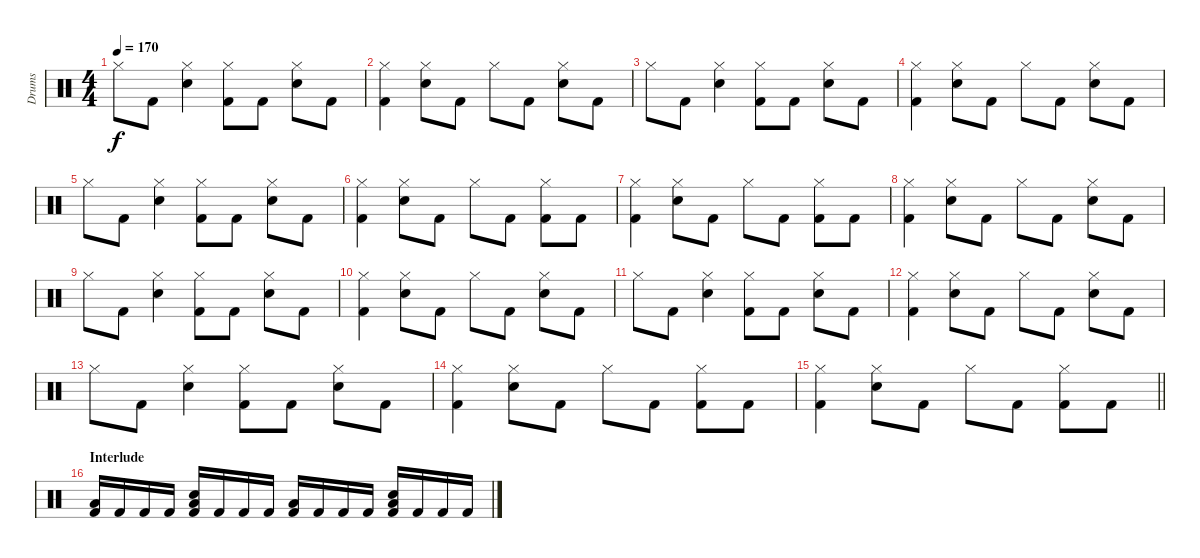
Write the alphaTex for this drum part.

\track ("Drums" "Drums") {instrument percussion}
\staff {score}
\articulation defaults
\ts (4 4)
\tempo 170
\clef neutral
\ks c "Hi-Hat (closed)".8{dy f} "Kick (hit) 2".8
("Hi-Hat (closed)" "Snare (hit) 2").4 ("Hi-Hat (closed)" "Kick (hit) 2").8 "Kick (hit) 2".8 ("Hi-Hat (closed)" "Snare (hit) 2").8 "Kick (hit) 2".8 |
("Hi-Hat (closed)" "Kick (hit) 2").4 ("Hi-Hat (closed)" "Snare (hit) 2").8 "Kick (hit) 2".8 "Hi-Hat (closed)".8 "Kick (hit) 2".8 ("Hi-Hat (closed)" "Snare (hit) 2").8 "Kick (hit) 2".8 |
"Hi-Hat (closed)".8 "Kick (hit) 2".8 ("Hi-Hat (closed)" "Snare (hit) 2").4 ("Hi-Hat (closed)" "Kick (hit) 2").8 "Kick (hit) 2".8 ("Hi-Hat (closed)" "Snare (hit) 2").8 "Kick (hit) 2".8 |
("Hi-Hat (closed)" "Kick (hit) 2").4 ("Hi-Hat (closed)" "Snare (hit) 2").8 "Kick (hit) 2".8 "Hi-Hat (closed)".8 "Kick (hit) 2".8 ("Hi-Hat (closed)" "Snare (hit) 2").8 "Kick (hit) 2".8 |
"Hi-Hat (closed)".8 "Kick (hit) 2".8 ("Hi-Hat (closed)" "Snare (hit) 2").4 ("Hi-Hat (closed)" "Kick (hit) 2").8 "Kick (hit) 2".8 ("Hi-Hat (closed)" "Snare (hit) 2").8 "Kick (hit) 2".8 |
("Hi-Hat (closed)" "Kick (hit) 2").4 ("Hi-Hat (closed)" "Snare (hit) 2").8 "Kick (hit) 2".8 "Hi-Hat (closed)".8 "Kick (hit) 2".8 ("Hi-Hat (closed)" "Kick (hit) 2").8 "Kick (hit) 2".8 |
("Hi-Hat (closed)" "Kick (hit) 2").4 ("Hi-Hat (closed)" "Snare (hit) 2").8 "Kick (hit) 2".8 "Hi-Hat (closed)".8 "Kick (hit) 2".8 ("Hi-Hat (closed)" "Kick (hit) 2").8 "Kick (hit) 2".8 |
("Hi-Hat (closed)" "Kick (hit) 2").4 ("Hi-Hat (closed)" "Snare (hit) 2").8 "Kick (hit) 2".8 "Hi-Hat (closed)".8 "Kick (hit) 2".8 ("Hi-Hat (closed)" "Snare (hit) 2").8 "Kick (hit) 2".8 |
"Hi-Hat (closed)".8 "Kick (hit) 2".8 ("Hi-Hat (closed)" "Snare (hit) 2").4 ("Hi-Hat (closed)" "Kick (hit) 2").8 "Kick (hit) 2".8 ("Hi-Hat (closed)" "Snare (hit) 2").8 "Kick (hit) 2".8 |
("Hi-Hat (closed)" "Kick (hit) 2").4 ("Hi-Hat (closed)" "Snare (hit) 2").8 "Kick (hit) 2".8 "Hi-Hat (closed)".8 "Kick (hit) 2".8 ("Hi-Hat (closed)" "Snare (hit) 2").8 "Kick (hit) 2".8 |
"Hi-Hat (closed)".8 "Kick (hit) 2".8 ("Hi-Hat (closed)" "Snare (hit) 2").4 ("Hi-Hat (closed)" "Kick (hit) 2").8 "Kick (hit) 2".8 ("Hi-Hat (closed)" "Snare (hit) 2").8 "Kick (hit) 2".8 |
("Hi-Hat (closed)" "Kick (hit) 2").4 ("Hi-Hat (closed)" "Snare (hit) 2").8 "Kick (hit) 2".8 "Hi-Hat (closed)".8 "Kick (hit) 2".8 ("Hi-Hat (closed)" "Snare (hit) 2").8 "Kick (hit) 2".8 |
"Hi-Hat (closed)".8 "Kick (hit) 2".8 ("Hi-Hat (closed)" "Snare (hit) 2").4 ("Hi-Hat (closed)" "Kick (hit) 2").8 "Kick (hit) 2".8 ("Hi-Hat (closed)" "Snare (hit) 2").8 "Kick (hit) 2".8 |
("Hi-Hat (closed)" "Kick (hit) 2").4 ("Hi-Hat (closed)" "Snare (hit) 2").8 "Kick (hit) 2".8 "Hi-Hat (closed)".8 "Kick (hit) 2".8 ("Hi-Hat (closed)" "Kick (hit) 2").8 "Kick (hit) 2".8 |
\barLineRight lightlight
("Hi-Hat (closed)" "Kick (hit) 2").4 ("Hi-Hat (closed)" "Snare (hit) 2").8 "Kick (hit) 2".8 "Hi-Hat (closed)".8 "Kick (hit) 2".8 ("Hi-Hat (closed)" "Kick (hit) 2").8 "Kick (hit) 2".8 |
\section ("" "Interlude")
("Low Tom (hit)" "Kick (hit) 2").16 "Kick (hit) 2".16 "Kick (hit) 2".16 "Kick (hit) 2".16 ("Low Tom (hit)" "Snare (hit) 2" "Kick (hit) 2").16 "Kick (hit) 2".16 "Kick (hit) 2".16 "Kick (hit) 2".16 ("Low Tom (hit)" "Kick (hit) 2").16 "Kick (hit) 2".16 "Kick (hit) 2".16 "Kick (hit) 2".16 ("Low Tom (hit)" "Snare (hit) 2" "Kick (hit) 2").16 "Kick (hit) 2".16 "Kick (hit) 2".16 "Kick (hit) 2".16
